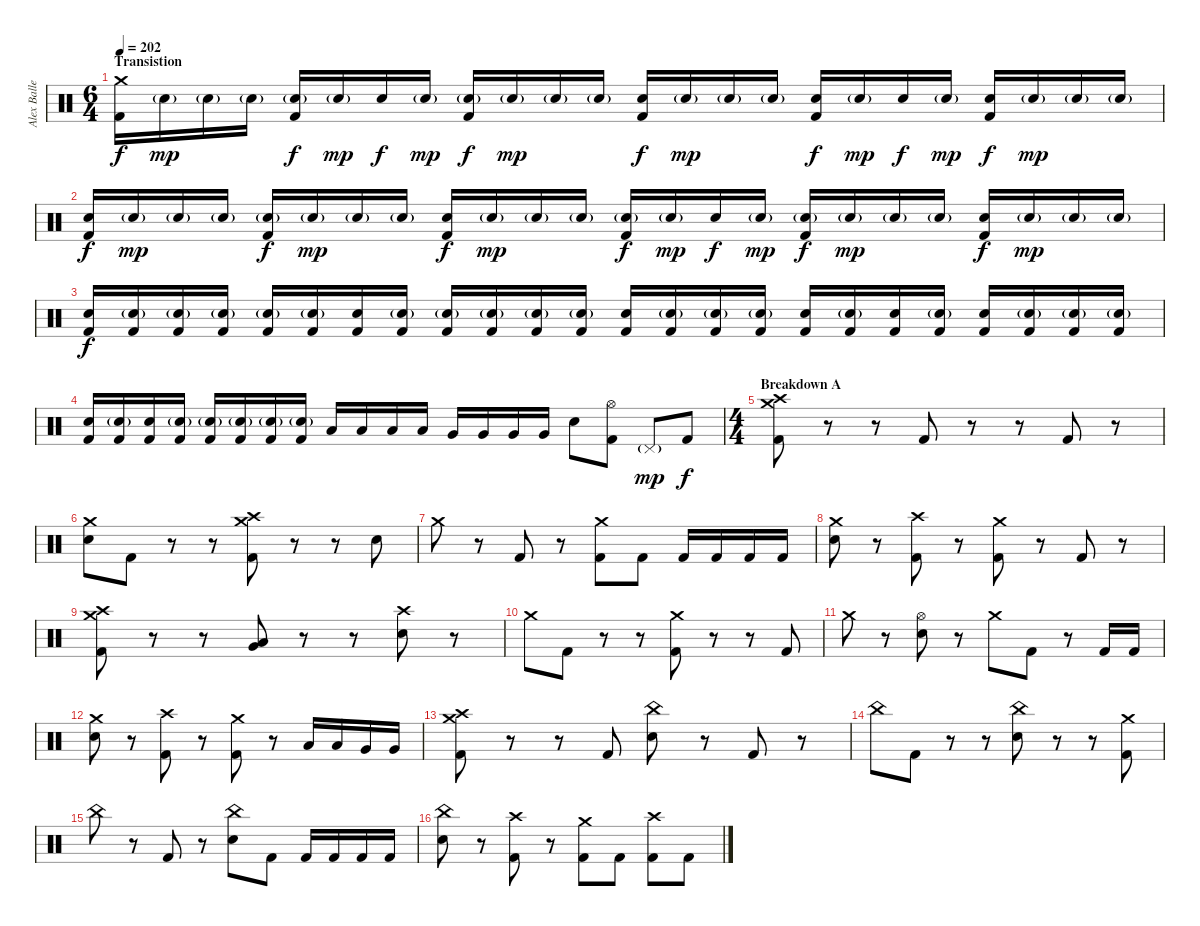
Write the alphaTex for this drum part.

\track ("Alex Ballew" "Alex Balle") {instrument percussion}
\staff {score}
\articulation defaults
\ts (6 4)
\section ("" "Transistion")
\tempo 202
\clef neutral
\ks c
("Crash medium (hit)" "Kick (hit) 2").16{dy f} "Snare (hit) 2"{g}.16{dy mp} "Snare (hit) 2"{g}.16 "Snare (hit) 2"{g}.16 ("Snare (hit) 2"{g} "Kick (hit) 2").16{dy f} "Snare (hit) 2"{g}.16{dy mp} "Electric Snare (hit)".16{dy f} "Snare (hit) 2"{g}.16{dy mp} ("Snare (hit) 2"{g} "Kick (hit) 2").16{dy f} "Snare (hit) 2"{g}.16{dy mp} "Snare (hit) 2"{g}.16 "Snare (hit) 2"{g}.16 ("Electric Snare (hit)" "Kick (hit) 2").16{dy f} "Snare (hit) 2"{g}.16{dy mp} "Snare (hit) 2"{g}.16 "Snare (hit) 2"{g}.16 ("Electric Snare (hit)" "Kick (hit) 2").16{dy f} "Snare (hit) 2"{g}.16{dy mp} "Electric Snare (hit)".16{dy f} "Snare (hit) 2"{g}.16{dy mp} ("Electric Snare (hit)" "Kick (hit) 2").16{dy f} "Snare (hit) 2"{g}.16{dy mp} "Snare (hit) 2"{g}.16 "Snare (hit) 2"{g}.16 |
("Electric Snare (hit)" "Kick (hit) 2").16{dy f} "Snare (hit) 2"{g}.16{dy mp} "Snare (hit) 2"{g}.16 "Snare (hit) 2"{g}.16 ("Snare (hit) 2"{g} "Kick (hit) 2").16{dy f} "Snare (hit) 2"{g}.16{dy mp} "Snare (hit) 2"{g}.16 "Snare (hit) 2"{g}.16 ("Electric Snare (hit)" "Kick (hit) 2").16{dy f} "Snare (hit) 2"{g}.16{dy mp} "Snare (hit) 2"{g}.16 "Snare (hit) 2"{g}.16 ("Snare (hit) 2"{g} "Kick (hit) 2").16{dy f} "Snare (hit) 2"{g}.16{dy mp} "Electric Snare (hit)".16{dy f} "Snare (hit) 2"{g}.16{dy mp} ("Snare (hit) 2"{g} "Kick (hit) 2").16{dy f} "Snare (hit) 2"{g}.16{dy mp} "Snare (hit) 2"{g}.16 "Snare (hit) 2"{g}.16 ("Electric Snare (hit)" "Kick (hit) 2").16{dy f} "Snare (hit) 2"{g}.16{dy mp} "Snare (hit) 2"{g}.16 "Snare (hit) 2"{g}.16 |
("Electric Snare (hit)" "Kick (hit) 2").16{dy f} ("Snare (hit) 2"{g} "Kick (hit) 2").16 ("Snare (hit) 2"{g} "Kick (hit) 2").16 ("Snare (hit) 2"{g} "Kick (hit) 2").16 ("Snare (hit) 2"{g} "Kick (hit) 2").16 ("Snare (hit) 2"{g} "Kick (hit) 2").16 ("Electric Snare (hit)" "Kick (hit) 2").16 ("Snare (hit) 2"{g} "Kick (hit) 2").16 ("Snare (hit) 2"{g} "Kick (hit) 2").16 ("Snare (hit) 2"{g} "Kick (hit) 2").16 ("Snare (hit) 2"{g} "Kick (hit) 2").16 ("Snare (hit) 2"{g} "Kick (hit) 2").16 ("Electric Snare (hit)" "Kick (hit) 2").16 ("Snare (hit) 2"{g} "Kick (hit) 2").16 ("Snare (hit) 2"{g} "Kick (hit) 2").16 ("Snare (hit) 2"{g} "Kick (hit) 2").16 ("Electric Snare (hit)" "Kick (hit) 2").16 ("Snare (hit) 2"{g} "Kick (hit) 2").16 ("Electric Snare (hit)" "Kick (hit) 2").16 ("Snare (hit) 2"{g} "Kick (hit) 2").16 ("Electric Snare (hit)" "Kick (hit) 2").16 ("Snare (hit) 2"{g} "Kick (hit) 2").16 ("Snare (hit) 2"{g} "Kick (hit) 2").16 ("Snare (hit) 2"{g} "Kick (hit) 2").16 |
("Electric Snare (hit)" "Kick (hit) 2").16 ("Snare (hit) 2"{g} "Kick (hit) 2").16 ("Electric Snare (hit)" "Kick (hit) 2").16 ("Snare (hit) 2"{g} "Kick (hit) 2").16 ("Snare (hit) 2"{g} "Kick (hit) 2").16 ("Snare (hit) 2"{g} "Kick (hit) 2").16 ("Snare (hit) 2"{g} "Kick (hit) 2").16 ("Snare (hit) 2"{g} "Kick (hit) 2").16 "Low Tom (hit)".16 "Low Tom (hit)".16 "Low Tom (hit)".16 "Low Tom (hit)".16 "Very Low Tom (hit)".16 "Very Low Tom (hit)".16 "Very Low Tom (hit)".16 "Very Low Tom (hit)".16 "Electric Snare (hit)".8 ("Hi-Hat (open)" "Kick (hit) 2").8 "Pedal Hi-Hat (hit)"{g}.8{dy mp} "Kick (hit) 2".8{dy f} |
\ts (4 4)
\section ("" "Breakdown A")
("Crash medium (hit)" "Crash high (hit)" "Kick (hit) 2").8 r.8 r.8 "Kick (hit) 2".8 r.8 r.8 "Kick (hit) 2".8 r.8 |
("Crash medium (hit)" "Electric Snare (hit)").8 "Kick (hit) 2".8 r.8 r.8 ("Crash medium (hit)" "Crash high (hit)" "Kick (hit) 2").8 r.8 r.8 "Electric Snare (hit)".8 |
"Crash medium (hit)".8 r.8 "Kick (hit) 2".8 r.8 ("Crash medium (hit)" "Kick (hit) 2").8 "Kick (hit) 2".8 "Kick (hit) 2".16 "Kick (hit) 2".16 "Kick (hit) 2".16 "Kick (hit) 2".16 |
("Crash medium (hit)" "Electric Snare (hit)").8 r.8 ("Crash high (hit)" "Kick (hit) 2").8 r.8 ("Crash medium (hit)" "Kick (hit) 2").8 r.8 "Kick (hit) 2".8 r.8 |
("Crash medium (hit)" "Crash high (hit)" "Kick (hit) 2").8 r.8 r.8 ("Low Tom (hit)" "Very Low Tom (hit)").8 r.8 r.8 ("Crash high (hit)" "Electric Snare (hit)").8 r.8 |
"Crash medium (hit)".8 "Kick (hit) 2".8 r.8 r.8 ("Crash medium (hit)" "Kick (hit) 2").8 r.8 r.8 "Kick (hit) 2".8 |
"Crash medium (hit)".8 r.8 ("Hi-Hat (open)" "Electric Snare (hit)").8 r.8 "Crash medium (hit)".8 "Kick (hit) 2".8 r.8 "Kick (hit) 2".16 "Kick (hit) 2".16 |
("Crash medium (hit)" "Electric Snare (hit)").8 r.8 ("Crash high (hit)" "Kick (hit) 2").8 r.8 ("Crash medium (hit)" "Kick (hit) 2").8 r.8 "Low Tom (hit)".16 "Low Tom (hit)".16 "Very Low Tom (hit)".16 "Very Low Tom (hit)".16 |
("Crash medium (hit)" "Crash high (hit)" "Kick (hit) 2").8 r.8 r.8 "Kick (hit) 2".8 ("China (hit)" "Electric Snare (hit)").8 r.8 "Kick (hit) 2".8 r.8 |
"China (hit)".8 "Kick (hit) 2".8 r.8 r.8 ("China (hit)" "Electric Snare (hit)").8 r.8 r.8 ("Crash medium (hit)" "Kick (hit) 2").8 |
"China (hit)".8 r.8 "Kick (hit) 2".8 r.8 ("China (hit)" "Electric Snare (hit)").8 "Kick (hit) 2".8 "Kick (hit) 2".16 "Kick (hit) 2".16 "Kick (hit) 2".16 "Kick (hit) 2".16 |
("China (hit)" "Electric Snare (hit)").8 r.8 ("Crash high (hit)" "Kick (hit) 2").8 r.8 ("Crash medium (hit)" "Kick (hit) 2").8 "Kick (hit) 2".8 ("Crash high (hit)" "Kick (hit) 2").8 "Kick (hit) 2".8
